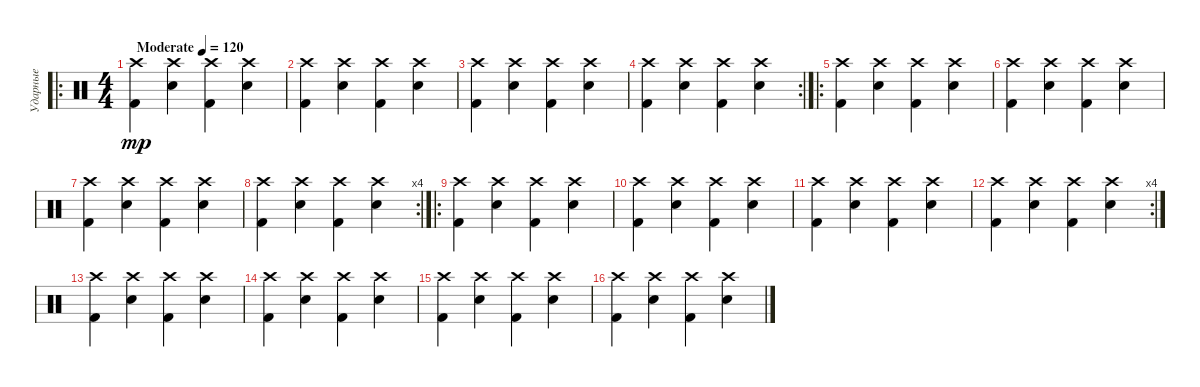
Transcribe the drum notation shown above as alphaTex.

\track ("Ударные" "Ударные") {instrument percussion}
\staff {score}
\articulation defaults
\ro
\ts (4 4)
\tempo (120 "Moderate")
\clef neutral
\ks c
("Crash high (hit)" "Kick (hit) 2").4{dy mp} ("Crash high (hit)" "Snare (hit) 2").4 ("Crash high (hit)" "Kick (hit) 2").4 ("Crash high (hit)" "Snare (hit) 2").4 |
("Crash high (hit)" "Kick (hit) 2").4 ("Crash high (hit)" "Snare (hit) 2").4 ("Crash high (hit)" "Kick (hit) 2").4 ("Crash high (hit)" "Snare (hit) 2").4 |
("Crash high (hit)" "Kick (hit) 2").4 ("Crash high (hit)" "Snare (hit) 2").4 ("Crash high (hit)" "Kick (hit) 2").4 ("Crash high (hit)" "Snare (hit) 2").4 |
\rc 2
("Crash high (hit)" "Kick (hit) 2").4 ("Crash high (hit)" "Snare (hit) 2").4 ("Crash high (hit)" "Kick (hit) 2").4 ("Crash high (hit)" "Snare (hit) 2").4 |
\ro
("Crash high (hit)" "Kick (hit) 2").4 ("Crash high (hit)" "Snare (hit) 2").4 ("Crash high (hit)" "Kick (hit) 2").4 ("Crash high (hit)" "Snare (hit) 2").4 |
("Crash high (hit)" "Kick (hit) 2").4 ("Crash high (hit)" "Snare (hit) 2").4 ("Crash high (hit)" "Kick (hit) 2").4 ("Crash high (hit)" "Snare (hit) 2").4 |
("Crash high (hit)" "Kick (hit) 2").4 ("Crash high (hit)" "Snare (hit) 2").4 ("Crash high (hit)" "Kick (hit) 2").4 ("Crash high (hit)" "Snare (hit) 2").4 |
\rc 4
("Crash high (hit)" "Kick (hit) 2").4 ("Crash high (hit)" "Snare (hit) 2").4 ("Crash high (hit)" "Kick (hit) 2").4 ("Crash high (hit)" "Snare (hit) 2").4 |
\ro
("Crash high (hit)" "Kick (hit) 2").4 ("Crash high (hit)" "Snare (hit) 2").4 ("Crash high (hit)" "Kick (hit) 2").4 ("Crash high (hit)" "Snare (hit) 2").4 |
("Crash high (hit)" "Kick (hit) 2").4 ("Crash high (hit)" "Snare (hit) 2").4 ("Crash high (hit)" "Kick (hit) 2").4 ("Crash high (hit)" "Snare (hit) 2").4 |
("Crash high (hit)" "Kick (hit) 2").4 ("Crash high (hit)" "Snare (hit) 2").4 ("Crash high (hit)" "Kick (hit) 2").4 ("Crash high (hit)" "Snare (hit) 2").4 |
\rc 4
("Crash high (hit)" "Kick (hit) 2").4 ("Crash high (hit)" "Snare (hit) 2").4 ("Crash high (hit)" "Kick (hit) 2").4 ("Crash high (hit)" "Snare (hit) 2").4 |
("Crash high (hit)" "Kick (hit) 2").4 ("Crash high (hit)" "Snare (hit) 2").4 ("Crash high (hit)" "Kick (hit) 2").4 ("Crash high (hit)" "Snare (hit) 2").4 |
("Crash high (hit)" "Kick (hit) 2").4 ("Crash high (hit)" "Snare (hit) 2").4 ("Crash high (hit)" "Kick (hit) 2").4 ("Crash high (hit)" "Snare (hit) 2").4 |
("Crash high (hit)" "Kick (hit) 2").4 ("Crash high (hit)" "Snare (hit) 2").4 ("Crash high (hit)" "Kick (hit) 2").4 ("Crash high (hit)" "Snare (hit) 2").4 |
("Crash high (hit)" "Kick (hit) 2").4 ("Crash high (hit)" "Snare (hit) 2").4 ("Crash high (hit)" "Kick (hit) 2").4 ("Crash high (hit)" "Snare (hit) 2").4
